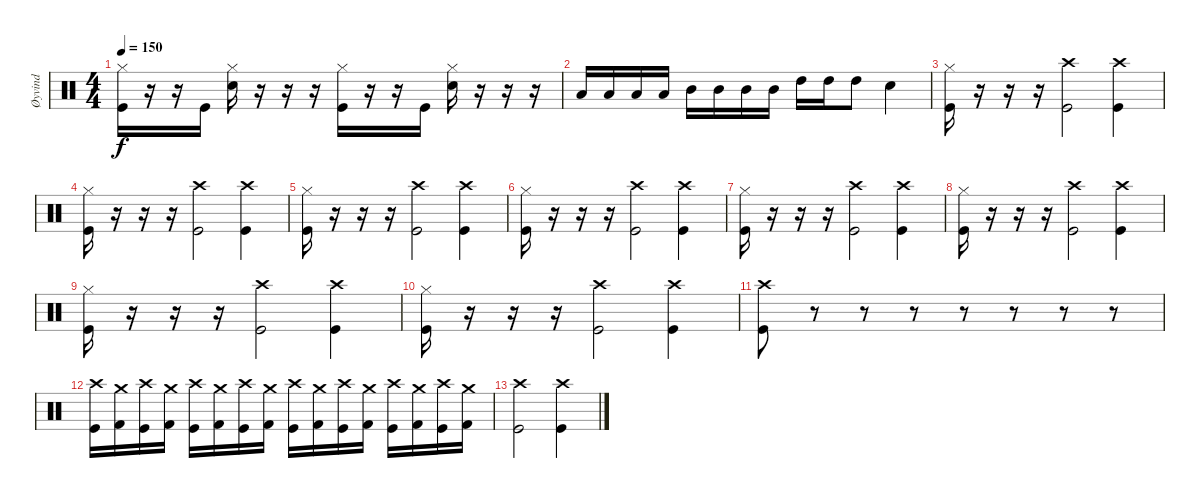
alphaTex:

\track ("Øyvind" "Øyvind") {instrument percussion}
\staff {score}
\articulation defaults
\ts (4 4)
\tempo 150
\clef neutral
\ks c
("Kick (hit)" "Hi-Hat (closed)").16{dy f} r.16 r.16 "Kick (hit)".16 ("Electric Snare (hit)" "Hi-Hat (closed)").16 r.16 r.16 r.16 ("Kick (hit)" "Hi-Hat (closed)").16 r.16 r.16 "Kick (hit)".16 ("Electric Snare (hit)" "Hi-Hat (closed)").16 r.16 r.16 r.16 |
"Low Tom (hit)".16 "Low Tom (hit)".16 "Low Tom (hit)".16 "Low Tom (hit)".16 "Mid Tom (hit)".16 "Mid Tom (hit)".16 "Mid Tom (hit)".16 "Mid Tom (hit)".16 "High Tom (hit)".16 "High Tom (hit)".16 "High Tom (hit)".8 "Snare (hit) 2".4 |
("Kick (hit)" "Hi-Hat (closed)").16 r.16 r.16 r.16 ("Crash high (hit)" "Kick (hit)").2 ("Crash high (hit)" "Kick (hit)").4 |
("Kick (hit)" "Hi-Hat (closed)").16 r.16 r.16 r.16 ("Crash high (hit)" "Kick (hit)").2 ("Crash high (hit)" "Kick (hit)").4 |
("Kick (hit)" "Hi-Hat (closed)").16 r.16 r.16 r.16 ("Crash high (hit)" "Kick (hit)").2 ("Crash high (hit)" "Kick (hit)").4 |
("Kick (hit)" "Hi-Hat (closed)").16 r.16 r.16 r.16 ("Crash high (hit)" "Kick (hit)").2 ("Crash high (hit)" "Kick (hit)").4 |
("Kick (hit)" "Hi-Hat (closed)").16 r.16 r.16 r.16 ("Crash high (hit)" "Kick (hit)").2 ("Crash high (hit)" "Kick (hit)").4 |
("Kick (hit)" "Hi-Hat (closed)").16 r.16 r.16 r.16 ("Crash high (hit)" "Kick (hit)").2 ("Crash high (hit)" "Kick (hit)").4 |
("Kick (hit)" "Hi-Hat (closed)").16 r.16 r.16 r.16 ("Crash high (hit)" "Kick (hit)").2 ("Crash high (hit)" "Kick (hit)").4 |
("Kick (hit)" "Hi-Hat (closed)").16 r.16 r.16 r.16 ("Crash high (hit)" "Kick (hit)").2 ("Crash high (hit)" "Kick (hit)").4 |
("Crash high (hit)" "Kick (hit)").8 r.8 r.8 r.8 r.8 r.8 r.8 r.8 |
("Crash high (hit)" "Kick (hit)").16 ("Crash medium (hit)" "Kick (hit) 2").16 ("Crash high (hit)" "Kick (hit)").16 ("Crash medium (hit)" "Kick (hit) 2").16 ("Crash high (hit)" "Kick (hit)").16 ("Crash medium (hit)" "Kick (hit) 2").16 ("Crash high (hit)" "Kick (hit)").16 ("Crash medium (hit)" "Kick (hit) 2").16 ("Crash high (hit)" "Kick (hit)").16 ("Crash medium (hit)" "Kick (hit) 2").16 ("Crash high (hit)" "Kick (hit)").16 ("Crash medium (hit)" "Kick (hit) 2").16 ("Crash high (hit)" "Kick (hit)").16 ("Crash medium (hit)" "Kick (hit) 2").16 ("Crash high (hit)" "Kick (hit)").16 ("Crash medium (hit)" "Kick (hit) 2").16 |
("Crash high (hit)" "Kick (hit)").2 ("Crash high (hit)" "Kick (hit)").4
